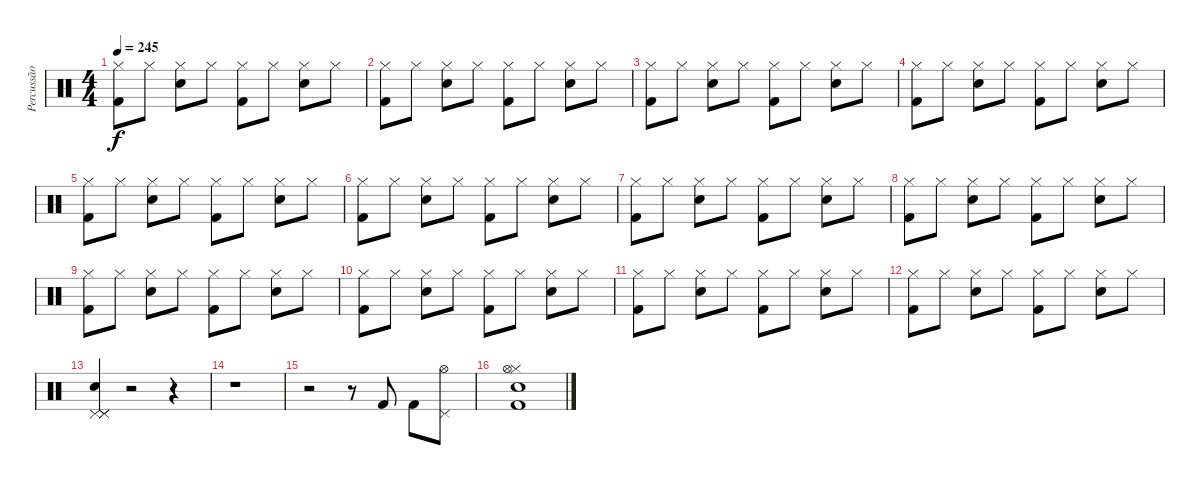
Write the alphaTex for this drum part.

\track ("Percussão" "Percussão") {instrument percussion}
\staff {score}
\articulation defaults
\ts (4 4)
\tempo 245
\clef neutral
\ks c
("Hi-Hat (closed)" "Kick (hit) 2").8{dy f} "Hi-Hat (closed)".8 ("Hi-Hat (closed)" "Snare (hit) 2").8 "Hi-Hat (closed)".8 ("Hi-Hat (closed)" "Kick (hit) 2").8 "Hi-Hat (closed)".8 ("Hi-Hat (closed)" "Snare (hit) 2").8 "Hi-Hat (closed)".8 |
("Hi-Hat (closed)" "Kick (hit) 2").8 "Hi-Hat (closed)".8 ("Hi-Hat (closed)" "Snare (hit) 2").8 "Hi-Hat (closed)".8 ("Hi-Hat (closed)" "Kick (hit) 2").8 "Hi-Hat (closed)".8 ("Hi-Hat (closed)" "Snare (hit) 2").8 "Hi-Hat (closed)".8 |
("Hi-Hat (closed)" "Kick (hit) 2").8 "Hi-Hat (closed)".8 ("Hi-Hat (closed)" "Snare (hit) 2").8 "Hi-Hat (closed)".8 ("Hi-Hat (closed)" "Kick (hit) 2").8 "Hi-Hat (closed)".8 ("Hi-Hat (closed)" "Snare (hit) 2").8 "Hi-Hat (closed)".8 |
("Hi-Hat (closed)" "Kick (hit) 2").8 "Hi-Hat (closed)".8 ("Hi-Hat (closed)" "Snare (hit) 2").8 "Hi-Hat (closed)".8 ("Hi-Hat (closed)" "Kick (hit) 2").8 "Hi-Hat (closed)".8 ("Hi-Hat (closed)" "Snare (hit) 2").8 "Hi-Hat (closed)".8 |
("Hi-Hat (closed)" "Kick (hit) 2").8 "Hi-Hat (closed)".8 ("Hi-Hat (closed)" "Snare (hit) 2").8 "Hi-Hat (closed)".8 ("Hi-Hat (closed)" "Kick (hit) 2").8 "Hi-Hat (closed)".8 ("Hi-Hat (closed)" "Snare (hit) 2").8 "Hi-Hat (closed)".8 |
("Hi-Hat (closed)" "Kick (hit) 2").8 "Hi-Hat (closed)".8 ("Hi-Hat (closed)" "Snare (hit) 2").8 "Hi-Hat (closed)".8 ("Hi-Hat (closed)" "Kick (hit) 2").8 "Hi-Hat (closed)".8 ("Hi-Hat (closed)" "Snare (hit) 2").8 "Hi-Hat (closed)".8 |
("Hi-Hat (closed)" "Kick (hit) 2").8 "Hi-Hat (closed)".8 ("Hi-Hat (closed)" "Snare (hit) 2").8 "Hi-Hat (closed)".8 ("Hi-Hat (closed)" "Kick (hit) 2").8 "Hi-Hat (closed)".8 ("Hi-Hat (closed)" "Snare (hit) 2").8 "Hi-Hat (closed)".8 |
("Hi-Hat (closed)" "Kick (hit) 2").8 "Hi-Hat (closed)".8 ("Hi-Hat (closed)" "Snare (hit) 2").8 "Hi-Hat (closed)".8 ("Hi-Hat (closed)" "Kick (hit) 2").8 "Hi-Hat (closed)".8 ("Hi-Hat (closed)" "Snare (hit) 2").8 "Hi-Hat (closed)".8 |
("Hi-Hat (closed)" "Kick (hit) 2").8 "Hi-Hat (closed)".8 ("Hi-Hat (closed)" "Snare (hit) 2").8 "Hi-Hat (closed)".8 ("Hi-Hat (closed)" "Kick (hit) 2").8 "Hi-Hat (closed)".8 ("Hi-Hat (closed)" "Snare (hit) 2").8 "Hi-Hat (closed)".8 |
("Hi-Hat (closed)" "Kick (hit) 2").8 "Hi-Hat (closed)".8 ("Hi-Hat (closed)" "Snare (hit) 2").8 "Hi-Hat (closed)".8 ("Hi-Hat (closed)" "Kick (hit) 2").8 "Hi-Hat (closed)".8 ("Hi-Hat (closed)" "Snare (hit) 2").8 "Hi-Hat (closed)".8 |
("Hi-Hat (closed)" "Kick (hit) 2").8 "Hi-Hat (closed)".8 ("Hi-Hat (closed)" "Snare (hit) 2").8 "Hi-Hat (closed)".8 ("Hi-Hat (closed)" "Kick (hit) 2").8 "Hi-Hat (closed)".8 ("Hi-Hat (closed)" "Snare (hit) 2").8 "Hi-Hat (closed)".8 |
("Hi-Hat (closed)" "Kick (hit) 2").8 "Hi-Hat (closed)".8 ("Hi-Hat (closed)" "Snare (hit) 2").8 "Hi-Hat (closed)".8 ("Hi-Hat (closed)" "Kick (hit) 2").8 "Hi-Hat (closed)".8 ("Hi-Hat (closed)" "Snare (hit) 2").8 "Hi-Hat (closed)".8 |
("Pedal Hi-Hat (hit)" "Pedal Hi-Hat (hit)" "Snare (hit) 2" "Pedal Hi-Hat (hit)").4 r.2 r.4 |
r.1 |
r.2 r.8 "Kick (hit) 2".8 "Kick (hit) 2".8 ("Pedal Hi-Hat (hit)" "Hi-Hat (open)").8 |
("Kick (hit) 2" "Hi-Hat (closed)" "Snare (hit) 2" "Hi-Hat (open)").1
